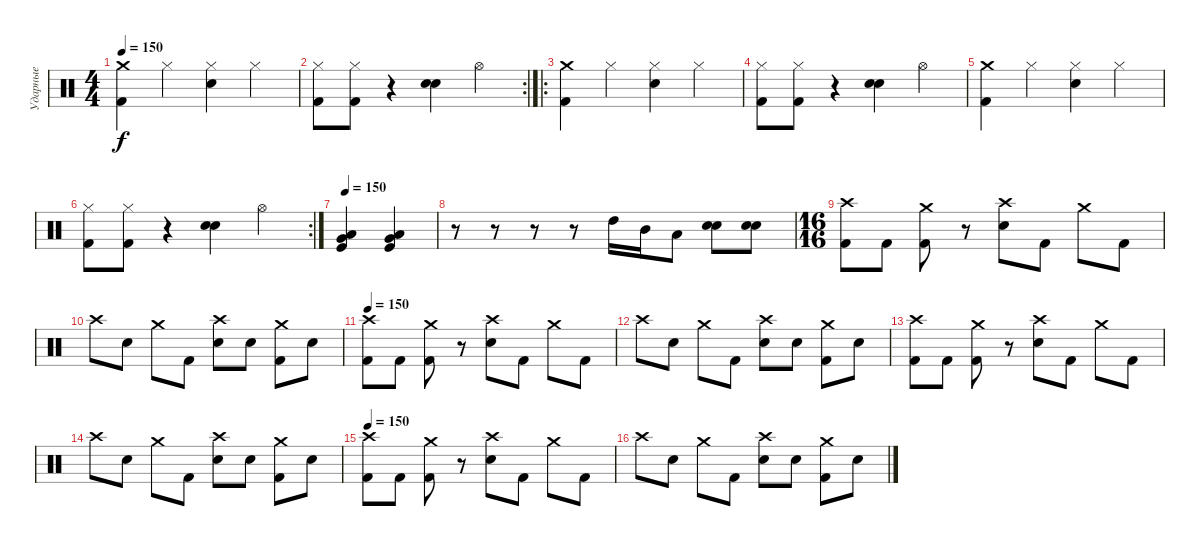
\track ("Ударные" "Ударные") {instrument percussion}
\staff {score}
\articulation defaults
\ts (4 4)
\tempo 150
\clef neutral
\ks c
("Crash medium (hit)" "Kick (hit) 2").4{dy f} "Hi-Hat (closed)".4 ("Hi-Hat (closed)" "Electric Snare (hit)").4 "Hi-Hat (closed)".4 |
\rc 2
("Hi-Hat (closed)" "Kick (hit) 2").8 ("Hi-Hat (closed)" "Kick (hit) 2").8 r.4 ("Snare (hit) 2" "Electric Snare (hit)").4 "Hi-Hat (open)".4 |
\ro
("Crash medium (hit)" "Kick (hit) 2").4 "Hi-Hat (closed)".4 ("Hi-Hat (closed)" "Electric Snare (hit)").4 "Hi-Hat (closed)".4 |
("Hi-Hat (closed)" "Kick (hit) 2").8 ("Hi-Hat (closed)" "Kick (hit) 2").8 r.4 ("Snare (hit) 2" "Electric Snare (hit)").4 "Hi-Hat (open)".4 |
("Crash medium (hit)" "Kick (hit) 2").4 "Hi-Hat (closed)".4 ("Hi-Hat (closed)" "Electric Snare (hit)").4 "Hi-Hat (closed)".4 |
\rc 2
("Hi-Hat (closed)" "Kick (hit) 2").8 ("Hi-Hat (closed)" "Kick (hit) 2").8 r.4 ("Snare (hit) 2" "Electric Snare (hit)").4 "Hi-Hat (open)".4 |
\tempo 150
("Kick (hit)" "Very Low Tom (hit)" "Low Floor Tom (hit)").4 ("Kick (hit)" "Very Low Tom (hit)" "Low Floor Tom (hit)").4 |
r.8 r.8 r.8 r.8 "High Tom (hit)".16 "Mid Tom (hit)".16 "Low Tom (hit)".8 ("Electric Snare (hit)" "Snare (hit) 2").8 ("Electric Snare (hit)" "Snare (hit) 2").8 |
\ts (16 16)
("Crash high (hit)" "Kick (hit) 2").8{volume 16} "Kick (hit) 2".8 ("Crash medium (hit)" "Kick (hit) 2").8 r.8 ("Crash high (hit)" "Electric Snare (hit)").8 "Kick (hit) 2".8 "Crash medium (hit)".8 "Kick (hit) 2".8 |
"Crash high (hit)".8 "Snare (hit) 2".8 "Crash medium (hit)".8 "Kick (hit) 2".8 ("Crash high (hit)" "Electric Snare (hit)").8 "Snare (hit) 2".8 ("Crash medium (hit)" "Kick (hit) 2").8 "Electric Snare (hit)".8 |
\tempo 150
("Crash high (hit)" "Kick (hit) 2").8 "Kick (hit) 2".8 ("Crash medium (hit)" "Kick (hit) 2").8 r.8 ("Crash high (hit)" "Electric Snare (hit)").8 "Kick (hit) 2".8 "Crash medium (hit)".8 "Kick (hit) 2".8 |
"Crash high (hit)".8 "Snare (hit) 2".8 "Crash medium (hit)".8 "Kick (hit) 2".8 ("Crash high (hit)" "Electric Snare (hit)").8 "Snare (hit) 2".8 ("Crash medium (hit)" "Kick (hit) 2").8 "Electric Snare (hit)".8 |
("Crash high (hit)" "Kick (hit) 2").8 "Kick (hit) 2".8 ("Crash medium (hit)" "Kick (hit) 2").8 r.8 ("Crash high (hit)" "Electric Snare (hit)").8 "Kick (hit) 2".8 "Crash medium (hit)".8 "Kick (hit) 2".8 |
"Crash high (hit)".8 "Snare (hit) 2".8 "Crash medium (hit)".8 "Kick (hit) 2".8 ("Crash high (hit)" "Electric Snare (hit)").8 "Snare (hit) 2".8 ("Crash medium (hit)" "Kick (hit) 2").8 "Electric Snare (hit)".8 |
\tempo 150
("Crash high (hit)" "Kick (hit) 2").8 "Kick (hit) 2".8 ("Crash medium (hit)" "Kick (hit) 2").8 r.8 ("Crash high (hit)" "Electric Snare (hit)").8 "Kick (hit) 2".8 "Crash medium (hit)".8 "Kick (hit) 2".8 |
"Crash high (hit)".8 "Snare (hit) 2".8 "Crash medium (hit)".8 "Kick (hit) 2".8 ("Crash high (hit)" "Electric Snare (hit)").8 "Snare (hit) 2".8 ("Crash medium (hit)" "Kick (hit) 2").8 "Electric Snare (hit)".8
